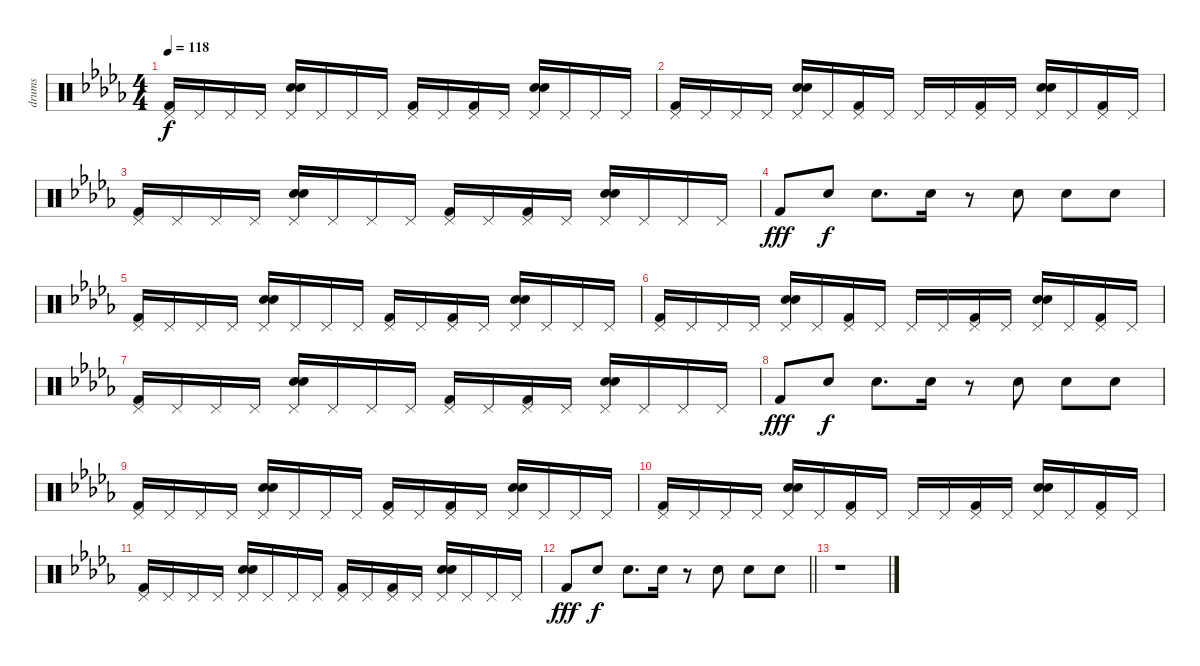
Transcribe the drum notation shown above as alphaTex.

\track ("drums" "drums") {instrument percussion}
\staff {score}
\articulation defaults
\ts (4 4)
\tempo 118
\clef neutral
\ks db
("Pedal Hi-Hat (hit)" "Kick (hit) 2").16{dy f} "Pedal Hi-Hat (hit)".16 "Pedal Hi-Hat (hit)".16 "Pedal Hi-Hat (hit)".16 ("Pedal Hi-Hat (hit)" "Hand Clap (hit)" "Snare (hit) 2").16 "Pedal Hi-Hat (hit)".16 "Pedal Hi-Hat (hit)".16 "Pedal Hi-Hat (hit)".16 ("Pedal Hi-Hat (hit)" "Kick (hit) 2").16 "Pedal Hi-Hat (hit)".16 ("Pedal Hi-Hat (hit)" "Kick (hit) 2").16 "Pedal Hi-Hat (hit)".16 ("Pedal Hi-Hat (hit)" "Hand Clap (hit)" "Snare (hit) 2").16 "Pedal Hi-Hat (hit)".16 "Pedal Hi-Hat (hit)".16 "Pedal Hi-Hat (hit)".16 |
("Pedal Hi-Hat (hit)" "Kick (hit) 2").16 "Pedal Hi-Hat (hit)".16 "Pedal Hi-Hat (hit)".16 "Pedal Hi-Hat (hit)".16 ("Pedal Hi-Hat (hit)" "Hand Clap (hit)" "Snare (hit) 2").16 "Pedal Hi-Hat (hit)".16 ("Pedal Hi-Hat (hit)" "Kick (hit) 2").16 "Pedal Hi-Hat (hit)".16 "Pedal Hi-Hat (hit)".16 "Pedal Hi-Hat (hit)".16 ("Pedal Hi-Hat (hit)" "Kick (hit) 2").16 "Pedal Hi-Hat (hit)".16 ("Pedal Hi-Hat (hit)" "Hand Clap (hit)" "Snare (hit) 2").16 "Pedal Hi-Hat (hit)".16 ("Pedal Hi-Hat (hit)" "Kick (hit) 2").16 "Pedal Hi-Hat (hit)".16 |
("Pedal Hi-Hat (hit)" "Kick (hit) 2").16 "Pedal Hi-Hat (hit)".16 "Pedal Hi-Hat (hit)".16 "Pedal Hi-Hat (hit)".16 ("Pedal Hi-Hat (hit)" "Hand Clap (hit)" "Snare (hit) 2").16 "Pedal Hi-Hat (hit)".16 "Pedal Hi-Hat (hit)".16 "Pedal Hi-Hat (hit)".16 ("Pedal Hi-Hat (hit)" "Kick (hit) 2").16 "Pedal Hi-Hat (hit)".16 ("Pedal Hi-Hat (hit)" "Kick (hit) 2").16 "Pedal Hi-Hat (hit)".16 ("Pedal Hi-Hat (hit)" "Hand Clap (hit)" "Snare (hit) 2").16 "Pedal Hi-Hat (hit)".16 "Pedal Hi-Hat (hit)".16 "Pedal Hi-Hat (hit)".16 |
"Kick (hit) 2".8{dy fff} "Snare (hit) 2".8{dy f} "Snare (hit) 2".8{d} "Snare (hit) 2".16 r.8 "Snare (hit) 2".8 "Snare (hit) 2".8 "Snare (hit) 2".8 |
("Pedal Hi-Hat (hit)" "Kick (hit) 2").16 "Pedal Hi-Hat (hit)".16 "Pedal Hi-Hat (hit)".16 "Pedal Hi-Hat (hit)".16 ("Pedal Hi-Hat (hit)" "Hand Clap (hit)" "Snare (hit) 2").16 "Pedal Hi-Hat (hit)".16 "Pedal Hi-Hat (hit)".16 "Pedal Hi-Hat (hit)".16 ("Pedal Hi-Hat (hit)" "Kick (hit) 2").16 "Pedal Hi-Hat (hit)".16 ("Pedal Hi-Hat (hit)" "Kick (hit) 2").16 "Pedal Hi-Hat (hit)".16 ("Pedal Hi-Hat (hit)" "Hand Clap (hit)" "Snare (hit) 2").16 "Pedal Hi-Hat (hit)".16 "Pedal Hi-Hat (hit)".16 "Pedal Hi-Hat (hit)".16 |
("Pedal Hi-Hat (hit)" "Kick (hit) 2").16 "Pedal Hi-Hat (hit)".16 "Pedal Hi-Hat (hit)".16 "Pedal Hi-Hat (hit)".16 ("Pedal Hi-Hat (hit)" "Hand Clap (hit)" "Snare (hit) 2").16 "Pedal Hi-Hat (hit)".16 ("Pedal Hi-Hat (hit)" "Kick (hit) 2").16 "Pedal Hi-Hat (hit)".16 "Pedal Hi-Hat (hit)".16 "Pedal Hi-Hat (hit)".16 ("Pedal Hi-Hat (hit)" "Kick (hit) 2").16 "Pedal Hi-Hat (hit)".16 ("Pedal Hi-Hat (hit)" "Hand Clap (hit)" "Snare (hit) 2").16 "Pedal Hi-Hat (hit)".16 ("Pedal Hi-Hat (hit)" "Kick (hit) 2").16 "Pedal Hi-Hat (hit)".16 |
("Pedal Hi-Hat (hit)" "Kick (hit) 2").16 "Pedal Hi-Hat (hit)".16 "Pedal Hi-Hat (hit)".16 "Pedal Hi-Hat (hit)".16 ("Pedal Hi-Hat (hit)" "Hand Clap (hit)" "Snare (hit) 2").16 "Pedal Hi-Hat (hit)".16 "Pedal Hi-Hat (hit)".16 "Pedal Hi-Hat (hit)".16 ("Pedal Hi-Hat (hit)" "Kick (hit) 2").16 "Pedal Hi-Hat (hit)".16 ("Pedal Hi-Hat (hit)" "Kick (hit) 2").16 "Pedal Hi-Hat (hit)".16 ("Pedal Hi-Hat (hit)" "Hand Clap (hit)" "Snare (hit) 2").16 "Pedal Hi-Hat (hit)".16 "Pedal Hi-Hat (hit)".16 "Pedal Hi-Hat (hit)".16 |
"Kick (hit) 2".8{dy fff} "Snare (hit) 2".8{dy f} "Snare (hit) 2".8{d} "Snare (hit) 2".16 r.8 "Snare (hit) 2".8 "Snare (hit) 2".8 "Snare (hit) 2".8 |
("Pedal Hi-Hat (hit)" "Kick (hit) 2").16 "Pedal Hi-Hat (hit)".16 "Pedal Hi-Hat (hit)".16 "Pedal Hi-Hat (hit)".16 ("Pedal Hi-Hat (hit)" "Hand Clap (hit)" "Snare (hit) 2").16 "Pedal Hi-Hat (hit)".16 "Pedal Hi-Hat (hit)".16 "Pedal Hi-Hat (hit)".16 ("Pedal Hi-Hat (hit)" "Kick (hit) 2").16 "Pedal Hi-Hat (hit)".16 ("Pedal Hi-Hat (hit)" "Kick (hit) 2").16 "Pedal Hi-Hat (hit)".16 ("Pedal Hi-Hat (hit)" "Hand Clap (hit)" "Snare (hit) 2").16 "Pedal Hi-Hat (hit)".16 "Pedal Hi-Hat (hit)".16 "Pedal Hi-Hat (hit)".16 |
("Pedal Hi-Hat (hit)" "Kick (hit) 2").16 "Pedal Hi-Hat (hit)".16 "Pedal Hi-Hat (hit)".16 "Pedal Hi-Hat (hit)".16 ("Pedal Hi-Hat (hit)" "Hand Clap (hit)" "Snare (hit) 2").16 "Pedal Hi-Hat (hit)".16 ("Pedal Hi-Hat (hit)" "Kick (hit) 2").16 "Pedal Hi-Hat (hit)".16 "Pedal Hi-Hat (hit)".16 "Pedal Hi-Hat (hit)".16 ("Pedal Hi-Hat (hit)" "Kick (hit) 2").16 "Pedal Hi-Hat (hit)".16 ("Pedal Hi-Hat (hit)" "Hand Clap (hit)" "Snare (hit) 2").16 "Pedal Hi-Hat (hit)".16 ("Pedal Hi-Hat (hit)" "Kick (hit) 2").16 "Pedal Hi-Hat (hit)".16 |
("Pedal Hi-Hat (hit)" "Kick (hit) 2").16 "Pedal Hi-Hat (hit)".16 "Pedal Hi-Hat (hit)".16 "Pedal Hi-Hat (hit)".16 ("Pedal Hi-Hat (hit)" "Hand Clap (hit)" "Snare (hit) 2").16 "Pedal Hi-Hat (hit)".16 "Pedal Hi-Hat (hit)".16 "Pedal Hi-Hat (hit)".16 ("Pedal Hi-Hat (hit)" "Kick (hit) 2").16 "Pedal Hi-Hat (hit)".16 ("Pedal Hi-Hat (hit)" "Kick (hit) 2").16 "Pedal Hi-Hat (hit)".16 ("Pedal Hi-Hat (hit)" "Hand Clap (hit)" "Snare (hit) 2").16 "Pedal Hi-Hat (hit)".16 "Pedal Hi-Hat (hit)".16 "Pedal Hi-Hat (hit)".16 |
\barLineRight lightlight "Kick (hit) 2".8{dy fff} "Snare (hit) 2".8{dy f} "Snare (hit) 2".8{d} "Snare (hit) 2".16
r.8 "Snare (hit) 2".8 "Snare (hit) 2".8 "Snare (hit) 2".8 |
r.1
